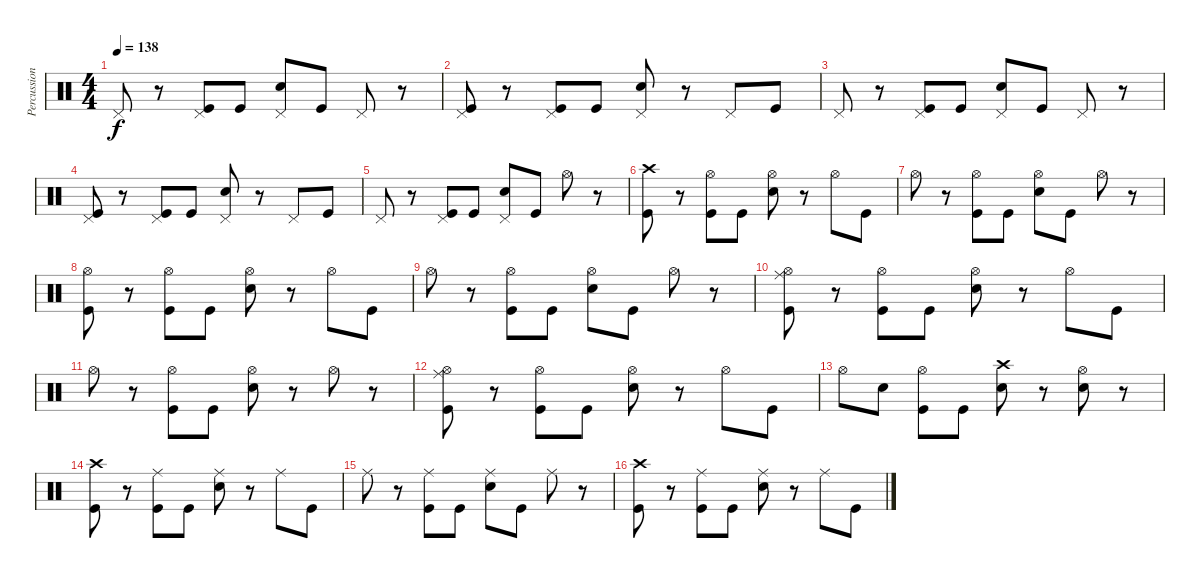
\track ("Percussion" "Percussion") {instrument percussion}
\staff {score}
\articulation defaults
\ts (4 4)
\tempo 138
\clef neutral
\ks c "Pedal Hi-Hat (hit)".8{dy f}
r.8 ("Pedal Hi-Hat (hit)" "Kick (hit)").8 "Kick (hit)".8 ("Snare (hit) 2" "Pedal Hi-Hat (hit)").8 "Kick (hit)".8 "Pedal Hi-Hat (hit)".8 r.8 |
("Pedal Hi-Hat (hit)" "Kick (hit)").8 r.8 ("Pedal Hi-Hat (hit)" "Kick (hit)").8 "Kick (hit)".8 ("Snare (hit) 2" "Pedal Hi-Hat (hit)").8 r.8 "Pedal Hi-Hat (hit)".8 "Kick (hit)".8 |
"Pedal Hi-Hat (hit)".8 r.8 ("Pedal Hi-Hat (hit)" "Kick (hit)").8 "Kick (hit)".8 ("Snare (hit) 2" "Pedal Hi-Hat (hit)").8 "Kick (hit)".8 "Pedal Hi-Hat (hit)".8 r.8 |
("Pedal Hi-Hat (hit)" "Kick (hit)").8 r.8 ("Pedal Hi-Hat (hit)" "Kick (hit)").8 "Kick (hit)".8 ("Snare (hit) 2" "Pedal Hi-Hat (hit)").8 r.8 "Pedal Hi-Hat (hit)".8 "Kick (hit)".8 |
"Pedal Hi-Hat (hit)".8 r.8 ("Pedal Hi-Hat (hit)" "Kick (hit)").8 "Kick (hit)".8 ("Snare (hit) 2" "Pedal Hi-Hat (hit)").8 "Kick (hit)".8 "Hi-Hat (open)".8 r.8 |
("Crash high (hit)" "Kick (hit)").8 r.8 ("Hi-Hat (open)" "Kick (hit)").8 "Kick (hit)".8 ("Snare (hit) 2" "Hi-Hat (open)").8 r.8 "Hi-Hat (open)".8 "Kick (hit)".8 |
"Hi-Hat (open)".8 r.8 ("Hi-Hat (open)" "Kick (hit)").8 "Kick (hit)".8 ("Snare (hit) 2" "Hi-Hat (open)").8 "Kick (hit)".8 "Hi-Hat (open)".8 r.8 |
("Hi-Hat (open)" "Kick (hit)").8 r.8 ("Hi-Hat (open)" "Kick (hit)").8 "Kick (hit)".8 ("Snare (hit) 2" "Hi-Hat (open)").8 r.8 "Hi-Hat (open)".8 "Kick (hit)".8 |
"Hi-Hat (open)".8 r.8 ("Hi-Hat (open)" "Kick (hit)").8 "Kick (hit)".8 ("Snare (hit) 2" "Hi-Hat (open)").8 "Kick (hit)".8 "Hi-Hat (open)".8 r.8 |
("Hi-Hat (open)" "Ride (middle)" "Kick (hit)").8 r.8 ("Hi-Hat (open)" "Kick (hit)").8 "Kick (hit)".8 ("Snare (hit) 2" "Hi-Hat (open)").8 r.8 "Hi-Hat (open)".8 "Kick (hit)".8 |
"Hi-Hat (open)".8 r.8 ("Hi-Hat (open)" "Kick (hit)").8 "Kick (hit)".8 ("Snare (hit) 2" "Hi-Hat (open)").8 r.8 "Hi-Hat (open)".8 r.8 |
("Hi-Hat (open)" "Ride (middle)" "Kick (hit)").8 r.8 ("Hi-Hat (open)" "Kick (hit)").8 "Kick (hit)".8 ("Snare (hit) 2" "Hi-Hat (open)").8 r.8 "Hi-Hat (open)".8 "Kick (hit)".8 |
"Hi-Hat (open)".8 "Snare (hit) 2".8 ("Hi-Hat (open)" "Kick (hit)").8 "Kick (hit)".8 ("Snare (hit) 2" "Crash high (hit)").8 r.8 ("Snare (hit) 2" "Hi-Hat (open)").8 r.8 |
("Crash high (hit)" "Kick (hit)").8 r.8 ("Ride (middle)" "Kick (hit)").8 "Kick (hit)".8 ("Snare (hit) 2" "Ride (middle)").8 r.8 "Ride (middle)".8 "Kick (hit)".8 |
"Ride (middle)".8 r.8 ("Ride (middle)" "Kick (hit)").8 "Kick (hit)".8 ("Snare (hit) 2" "Ride (middle)").8 "Kick (hit)".8 "Ride (middle)".8 r.8 |
("Crash high (hit)" "Kick (hit)").8 r.8 ("Ride (middle)" "Kick (hit)").8 "Kick (hit)".8 ("Snare (hit) 2" "Ride (middle)").8 r.8 "Ride (middle)".8 "Kick (hit)".8
